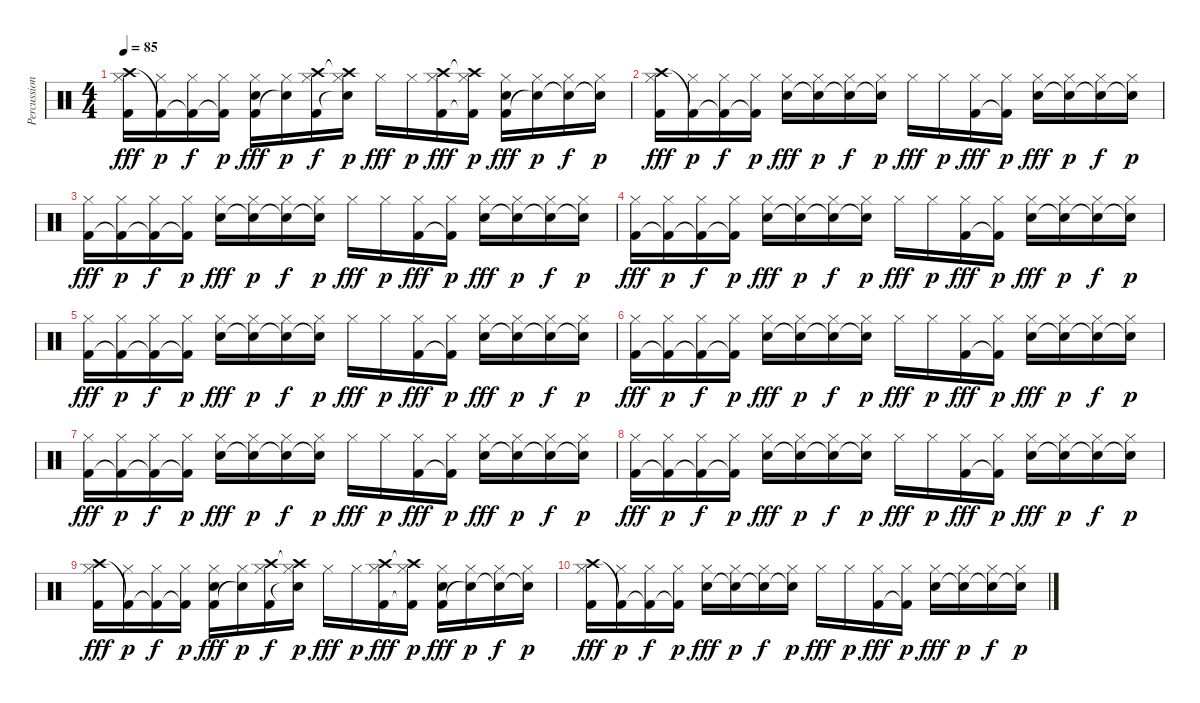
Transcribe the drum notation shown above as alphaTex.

\track ("Percussion" "Percussion") {instrument percussion}
\staff {score}
\articulation defaults
\ts (4 4)
\tempo 85
\clef neutral
\ks c
("Hi-Hat (closed)" "Crash high (hit)" "Kick (hit) 2").16{dy fff} ("Hi-Hat (closed)" "Kick (hit) 2"{t}).16{dy p} ("Hi-Hat (closed)" "Kick (hit) 2"{t}).16{dy f} ("Hi-Hat (closed)" "Kick (hit) 2"{t}).16{dy p} ("Hi-Hat (closed)" "Kick (hit) 2" "Snare (hit) 2").16{dy fff} ("Hi-Hat (closed)" "Snare (hit) 2"{t}).16{dy p} ("Hi-Hat (closed)" "Crash high (hit)" "Kick (hit) 2").16{dy f} ("Hi-Hat (closed)" "Crash high (hit)"{t} "Snare (hit) 2"{t}).16{dy p} "Hi-Hat (closed)".16{dy fff} "Hi-Hat (closed)".16{dy p} ("Hi-Hat (closed)" "Crash high (hit)" "Kick (hit) 2").16{dy fff} ("Hi-Hat (closed)" "Crash high (hit)"{t} "Kick (hit) 2"{t}).16{dy p} ("Hi-Hat (closed)" "Kick (hit) 2" "Snare (hit) 2").16{dy fff} ("Hi-Hat (closed)" "Snare (hit) 2"{t}).16{dy p} ("Hi-Hat (closed)" "Snare (hit) 2"{t}).16{dy f} ("Hi-Hat (closed)" "Snare (hit) 2"{t}).16{dy p} |
("Hi-Hat (closed)" "Crash high (hit)" "Kick (hit) 2").16{dy fff} ("Hi-Hat (closed)" "Kick (hit) 2"{t}).16{dy p} ("Hi-Hat (closed)" "Kick (hit) 2"{t}).16{dy f} ("Hi-Hat (closed)" "Kick (hit) 2"{t}).16{dy p} ("Hi-Hat (closed)" "Snare (hit) 2").16{dy fff} ("Hi-Hat (closed)" "Snare (hit) 2"{t}).16{dy p} ("Hi-Hat (closed)" "Snare (hit) 2"{t}).16{dy f} ("Hi-Hat (closed)" "Snare (hit) 2"{t}).16{dy p} "Hi-Hat (closed)".16{dy fff} "Hi-Hat (closed)".16{dy p} ("Hi-Hat (closed)" "Kick (hit) 2").16{dy fff} ("Hi-Hat (closed)" "Kick (hit) 2"{t}).16{dy p} ("Hi-Hat (closed)" "Snare (hit) 2").16{dy fff} ("Hi-Hat (closed)" "Snare (hit) 2"{t}).16{dy p} ("Hi-Hat (closed)" "Snare (hit) 2"{t}).16{dy f} ("Hi-Hat (closed)" "Snare (hit) 2"{t}).16{dy p} |
("Hi-Hat (closed)" "Kick (hit) 2").16{dy fff} ("Hi-Hat (closed)" "Kick (hit) 2"{t}).16{dy p} ("Hi-Hat (closed)" "Kick (hit) 2"{t}).16{dy f} ("Hi-Hat (closed)" "Kick (hit) 2"{t}).16{dy p} ("Hi-Hat (closed)" "Snare (hit) 2").16{dy fff} ("Hi-Hat (closed)" "Snare (hit) 2"{t}).16{dy p} ("Hi-Hat (closed)" "Snare (hit) 2"{t}).16{dy f} ("Hi-Hat (closed)" "Snare (hit) 2"{t}).16{dy p} "Hi-Hat (closed)".16{dy fff} "Hi-Hat (closed)".16{dy p} ("Hi-Hat (closed)" "Kick (hit) 2").16{dy fff} ("Hi-Hat (closed)" "Kick (hit) 2"{t}).16{dy p} ("Hi-Hat (closed)" "Snare (hit) 2").16{dy fff} ("Hi-Hat (closed)" "Snare (hit) 2"{t}).16{dy p} ("Hi-Hat (closed)" "Snare (hit) 2"{t}).16{dy f} ("Hi-Hat (closed)" "Snare (hit) 2"{t}).16{dy p} |
("Hi-Hat (closed)" "Kick (hit) 2").16{dy fff} ("Hi-Hat (closed)" "Kick (hit) 2"{t}).16{dy p} ("Hi-Hat (closed)" "Kick (hit) 2"{t}).16{dy f} ("Hi-Hat (closed)" "Kick (hit) 2"{t}).16{dy p} ("Hi-Hat (closed)" "Snare (hit) 2").16{dy fff} ("Hi-Hat (closed)" "Snare (hit) 2"{t}).16{dy p} ("Hi-Hat (closed)" "Snare (hit) 2"{t}).16{dy f} ("Hi-Hat (closed)" "Snare (hit) 2"{t}).16{dy p} "Hi-Hat (closed)".16{dy fff} "Hi-Hat (closed)".16{dy p} ("Hi-Hat (closed)" "Kick (hit) 2").16{dy fff} ("Hi-Hat (closed)" "Kick (hit) 2"{t}).16{dy p} ("Hi-Hat (closed)" "Snare (hit) 2").16{dy fff} ("Hi-Hat (closed)" "Snare (hit) 2"{t}).16{dy p} ("Hi-Hat (closed)" "Snare (hit) 2"{t}).16{dy f} ("Hi-Hat (closed)" "Snare (hit) 2"{t}).16{dy p} |
("Hi-Hat (closed)" "Kick (hit) 2").16{dy fff} ("Hi-Hat (closed)" "Kick (hit) 2"{t}).16{dy p} ("Hi-Hat (closed)" "Kick (hit) 2"{t}).16{dy f} ("Hi-Hat (closed)" "Kick (hit) 2"{t}).16{dy p} ("Hi-Hat (closed)" "Snare (hit) 2").16{dy fff} ("Hi-Hat (closed)" "Snare (hit) 2"{t}).16{dy p} ("Hi-Hat (closed)" "Snare (hit) 2"{t}).16{dy f} ("Hi-Hat (closed)" "Snare (hit) 2"{t}).16{dy p} "Hi-Hat (closed)".16{dy fff} "Hi-Hat (closed)".16{dy p} ("Hi-Hat (closed)" "Kick (hit) 2").16{dy fff} ("Hi-Hat (closed)" "Kick (hit) 2"{t}).16{dy p} ("Hi-Hat (closed)" "Snare (hit) 2").16{dy fff} ("Hi-Hat (closed)" "Snare (hit) 2"{t}).16{dy p} ("Hi-Hat (closed)" "Snare (hit) 2"{t}).16{dy f} ("Hi-Hat (closed)" "Snare (hit) 2"{t}).16{dy p} |
("Hi-Hat (closed)" "Kick (hit) 2").16{dy fff} ("Hi-Hat (closed)" "Kick (hit) 2"{t}).16{dy p} ("Hi-Hat (closed)" "Kick (hit) 2"{t}).16{dy f} ("Hi-Hat (closed)" "Kick (hit) 2"{t}).16{dy p} ("Hi-Hat (closed)" "Snare (hit) 2").16{dy fff} ("Hi-Hat (closed)" "Snare (hit) 2"{t}).16{dy p} ("Hi-Hat (closed)" "Snare (hit) 2"{t}).16{dy f} ("Hi-Hat (closed)" "Snare (hit) 2"{t}).16{dy p} "Hi-Hat (closed)".16{dy fff} "Hi-Hat (closed)".16{dy p} ("Hi-Hat (closed)" "Kick (hit) 2").16{dy fff} ("Hi-Hat (closed)" "Kick (hit) 2"{t}).16{dy p} ("Hi-Hat (closed)" "Snare (hit) 2").16{dy fff} ("Hi-Hat (closed)" "Snare (hit) 2"{t}).16{dy p} ("Hi-Hat (closed)" "Snare (hit) 2"{t}).16{dy f} ("Hi-Hat (closed)" "Snare (hit) 2"{t}).16{dy p} |
("Hi-Hat (closed)" "Kick (hit) 2").16{dy fff} ("Hi-Hat (closed)" "Kick (hit) 2"{t}).16{dy p} ("Hi-Hat (closed)" "Kick (hit) 2"{t}).16{dy f} ("Hi-Hat (closed)" "Kick (hit) 2"{t}).16{dy p} ("Hi-Hat (closed)" "Snare (hit) 2").16{dy fff} ("Hi-Hat (closed)" "Snare (hit) 2"{t}).16{dy p} ("Hi-Hat (closed)" "Snare (hit) 2"{t}).16{dy f} ("Hi-Hat (closed)" "Snare (hit) 2"{t}).16{dy p} "Hi-Hat (closed)".16{dy fff} "Hi-Hat (closed)".16{dy p} ("Hi-Hat (closed)" "Kick (hit) 2").16{dy fff} ("Hi-Hat (closed)" "Kick (hit) 2"{t}).16{dy p} ("Hi-Hat (closed)" "Snare (hit) 2").16{dy fff} ("Hi-Hat (closed)" "Snare (hit) 2"{t}).16{dy p} ("Hi-Hat (closed)" "Snare (hit) 2"{t}).16{dy f} ("Hi-Hat (closed)" "Snare (hit) 2"{t}).16{dy p} |
("Hi-Hat (closed)" "Kick (hit) 2").16{dy fff} ("Hi-Hat (closed)" "Kick (hit) 2"{t}).16{dy p} ("Hi-Hat (closed)" "Kick (hit) 2"{t}).16{dy f} ("Hi-Hat (closed)" "Kick (hit) 2"{t}).16{dy p} ("Hi-Hat (closed)" "Snare (hit) 2").16{dy fff} ("Hi-Hat (closed)" "Snare (hit) 2"{t}).16{dy p} ("Hi-Hat (closed)" "Snare (hit) 2"{t}).16{dy f} ("Hi-Hat (closed)" "Snare (hit) 2"{t}).16{dy p} "Hi-Hat (closed)".16{dy fff} "Hi-Hat (closed)".16{dy p} ("Hi-Hat (closed)" "Kick (hit) 2").16{dy fff} ("Hi-Hat (closed)" "Kick (hit) 2"{t}).16{dy p} ("Hi-Hat (closed)" "Snare (hit) 2").16{dy fff} ("Hi-Hat (closed)" "Snare (hit) 2"{t}).16{dy p} ("Hi-Hat (closed)" "Snare (hit) 2"{t}).16{dy f} ("Hi-Hat (closed)" "Snare (hit) 2"{t}).16{dy p} |
("Hi-Hat (closed)" "Crash high (hit)" "Kick (hit) 2").16{dy fff} ("Hi-Hat (closed)" "Kick (hit) 2"{t}).16{dy p} ("Hi-Hat (closed)" "Kick (hit) 2"{t}).16{dy f} ("Hi-Hat (closed)" "Kick (hit) 2"{t}).16{dy p} ("Hi-Hat (closed)" "Kick (hit) 2" "Snare (hit) 2").16{dy fff} ("Hi-Hat (closed)" "Snare (hit) 2"{t}).16{dy p} ("Hi-Hat (closed)" "Crash high (hit)" "Kick (hit) 2").16{dy f} ("Hi-Hat (closed)" "Crash high (hit)"{t} "Snare (hit) 2"{t}).16{dy p} "Hi-Hat (closed)".16{dy fff} "Hi-Hat (closed)".16{dy p} ("Hi-Hat (closed)" "Crash high (hit)" "Kick (hit) 2").16{dy fff} ("Hi-Hat (closed)" "Crash high (hit)"{t} "Kick (hit) 2"{t}).16{dy p} ("Hi-Hat (closed)" "Kick (hit) 2" "Snare (hit) 2").16{dy fff} ("Hi-Hat (closed)" "Snare (hit) 2"{t}).16{dy p} ("Hi-Hat (closed)" "Snare (hit) 2"{t}).16{dy f} ("Hi-Hat (closed)" "Snare (hit) 2"{t}).16{dy p} |
("Hi-Hat (closed)" "Crash high (hit)" "Kick (hit) 2").16{dy fff} ("Hi-Hat (closed)" "Kick (hit) 2"{t}).16{dy p} ("Hi-Hat (closed)" "Kick (hit) 2"{t}).16{dy f} ("Hi-Hat (closed)" "Kick (hit) 2"{t}).16{dy p} ("Hi-Hat (closed)" "Snare (hit) 2").16{dy fff} ("Hi-Hat (closed)" "Snare (hit) 2"{t}).16{dy p} ("Hi-Hat (closed)" "Snare (hit) 2"{t}).16{dy f} ("Hi-Hat (closed)" "Snare (hit) 2"{t}).16{dy p} "Hi-Hat (closed)".16{dy fff} "Hi-Hat (closed)".16{dy p} ("Hi-Hat (closed)" "Kick (hit) 2").16{dy fff} ("Hi-Hat (closed)" "Kick (hit) 2"{t}).16{dy p} ("Hi-Hat (closed)" "Snare (hit) 2").16{dy fff} ("Hi-Hat (closed)" "Snare (hit) 2"{t}).16{dy p} ("Hi-Hat (closed)" "Snare (hit) 2"{t}).16{dy f} ("Hi-Hat (closed)" "Snare (hit) 2"{t}).16{dy p}
